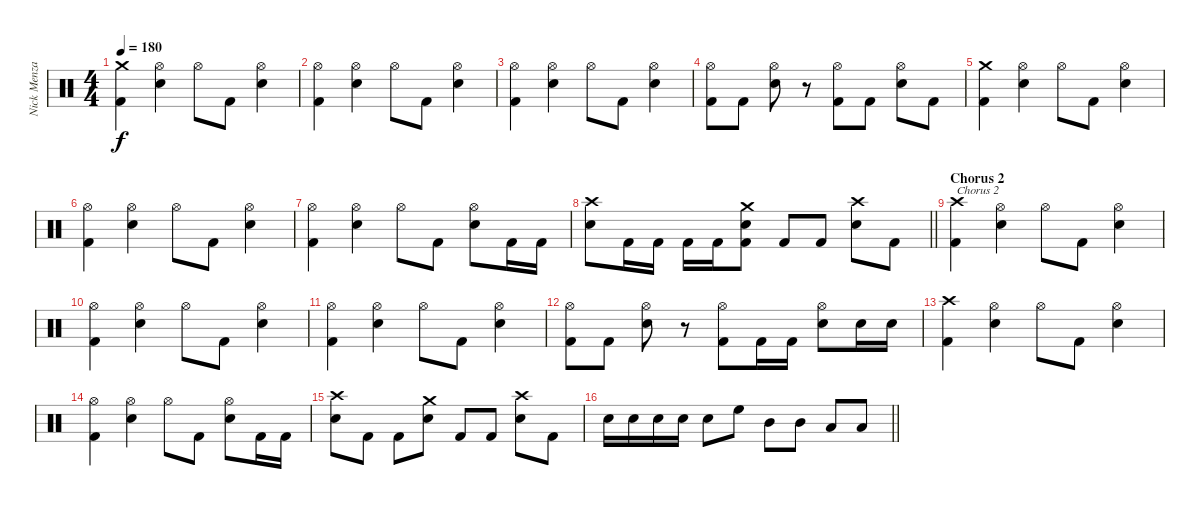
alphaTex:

\track ("Nick Menza" "Nick Menza") {instrument percussion}
\staff {score}
\articulation defaults
\ts (4 4)
\tempo 180
\clef neutral
\ks c
("Crash medium (hit)" "Kick (hit) 2").4{dy f} ("Hi-Hat (open)" "Snare (hit) 2").4 "Hi-Hat (open)".8 "Kick (hit) 2".8 ("Hi-Hat (open)" "Snare (hit) 2").4 |
("Hi-Hat (open)" "Kick (hit) 2").4 ("Hi-Hat (open)" "Snare (hit) 2").4 "Hi-Hat (open)".8 "Kick (hit) 2".8 ("Hi-Hat (open)" "Snare (hit) 2").4 |
("Hi-Hat (open)" "Kick (hit) 2").4 ("Hi-Hat (open)" "Snare (hit) 2").4 "Hi-Hat (open)".8 "Kick (hit) 2".8 ("Hi-Hat (open)" "Snare (hit) 2").4 |
("Hi-Hat (open)" "Kick (hit) 2").8 "Kick (hit) 2".8 ("Hi-Hat (open)" "Snare (hit) 2").8 r.8 ("Hi-Hat (open)" "Kick (hit) 2").8 "Kick (hit) 2".8 ("Hi-Hat (open)" "Snare (hit) 2").8 "Kick (hit) 2".8 |
("Crash medium (hit)" "Kick (hit) 2").4 ("Hi-Hat (open)" "Snare (hit) 2").4 "Hi-Hat (open)".8 "Kick (hit) 2".8 ("Hi-Hat (open)" "Snare (hit) 2").4 |
("Hi-Hat (open)" "Kick (hit) 2").4 ("Hi-Hat (open)" "Snare (hit) 2").4 "Hi-Hat (open)".8 "Kick (hit) 2".8 ("Hi-Hat (open)" "Snare (hit) 2").4 |
("Hi-Hat (open)" "Kick (hit) 2").4 ("Hi-Hat (open)" "Snare (hit) 2").4 "Hi-Hat (open)".8 "Kick (hit) 2".8 ("Hi-Hat (open)" "Snare (hit) 2").8 "Kick (hit) 2".16 "Kick (hit) 2".16 |
\barLineRight lightlight
("Crash high (hit)" "Snare (hit) 2").8 "Kick (hit) 2".16 "Kick (hit) 2".16 "Kick (hit) 2".16 "Kick (hit) 2".16 ("Crash medium (hit)" "Snare (hit) 2" "Kick (hit) 2").8 "Kick (hit) 2".8 "Kick (hit) 2".8 ("Crash high (hit)" "Snare (hit) 2").8 "Kick (hit) 2".8 |
\section ("" "Chorus 2")
("Crash high (hit)" "Kick (hit) 2").4{txt "Chorus 2"} ("Hi-Hat (open)" "Snare (hit) 2").4 "Hi-Hat (open)".8 "Kick (hit) 2".8 ("Hi-Hat (open)" "Snare (hit) 2").4 |
("Hi-Hat (open)" "Kick (hit) 2").4 ("Hi-Hat (open)" "Snare (hit) 2").4 "Hi-Hat (open)".8 "Kick (hit) 2".8 ("Hi-Hat (open)" "Snare (hit) 2").4 |
("Hi-Hat (open)" "Kick (hit) 2").4 ("Hi-Hat (open)" "Snare (hit) 2").4 "Hi-Hat (open)".8 "Kick (hit) 2".8 ("Hi-Hat (open)" "Snare (hit) 2").4 |
("Hi-Hat (open)" "Kick (hit) 2").8 "Kick (hit) 2".8 ("Hi-Hat (open)" "Snare (hit) 2").8 r.8 ("Hi-Hat (open)" "Kick (hit) 2").8 "Kick (hit) 2".16 "Kick (hit) 2".16 ("Hi-Hat (open)" "Snare (hit) 2").8 "Snare (hit) 2".16 "Snare (hit) 2".16 |
("Crash high (hit)" "Kick (hit) 2").4 ("Hi-Hat (open)" "Snare (hit) 2").4 "Hi-Hat (open)".8 "Kick (hit) 2".8 ("Hi-Hat (open)" "Snare (hit) 2").4 |
("Hi-Hat (open)" "Kick (hit) 2").4 ("Hi-Hat (open)" "Snare (hit) 2").4 "Hi-Hat (open)".8 "Kick (hit) 2".8 ("Hi-Hat (open)" "Snare (hit) 2").8 "Kick (hit) 2".16 "Kick (hit) 2".16 |
("Crash high (hit)" "Snare (hit) 2").8 "Kick (hit) 2".8 "Kick (hit) 2".8 ("Crash medium (hit)" "Snare (hit) 2").8 "Kick (hit) 2".8 "Kick (hit) 2".8 ("Crash high (hit)" "Snare (hit) 2").8 "Kick (hit) 2".8 |
\barLineRight lightlight "Snare (hit) 2".16 "Snare (hit) 2".16 "Snare (hit) 2".16 "Snare (hit) 2".16 "Snare (hit) 2".8 "High Floor Tom (hit)".8 "Mid Tom (hit)".8 "Mid Tom (hit)".8 "Low Tom (hit)".8 "Low Tom (hit)".8
